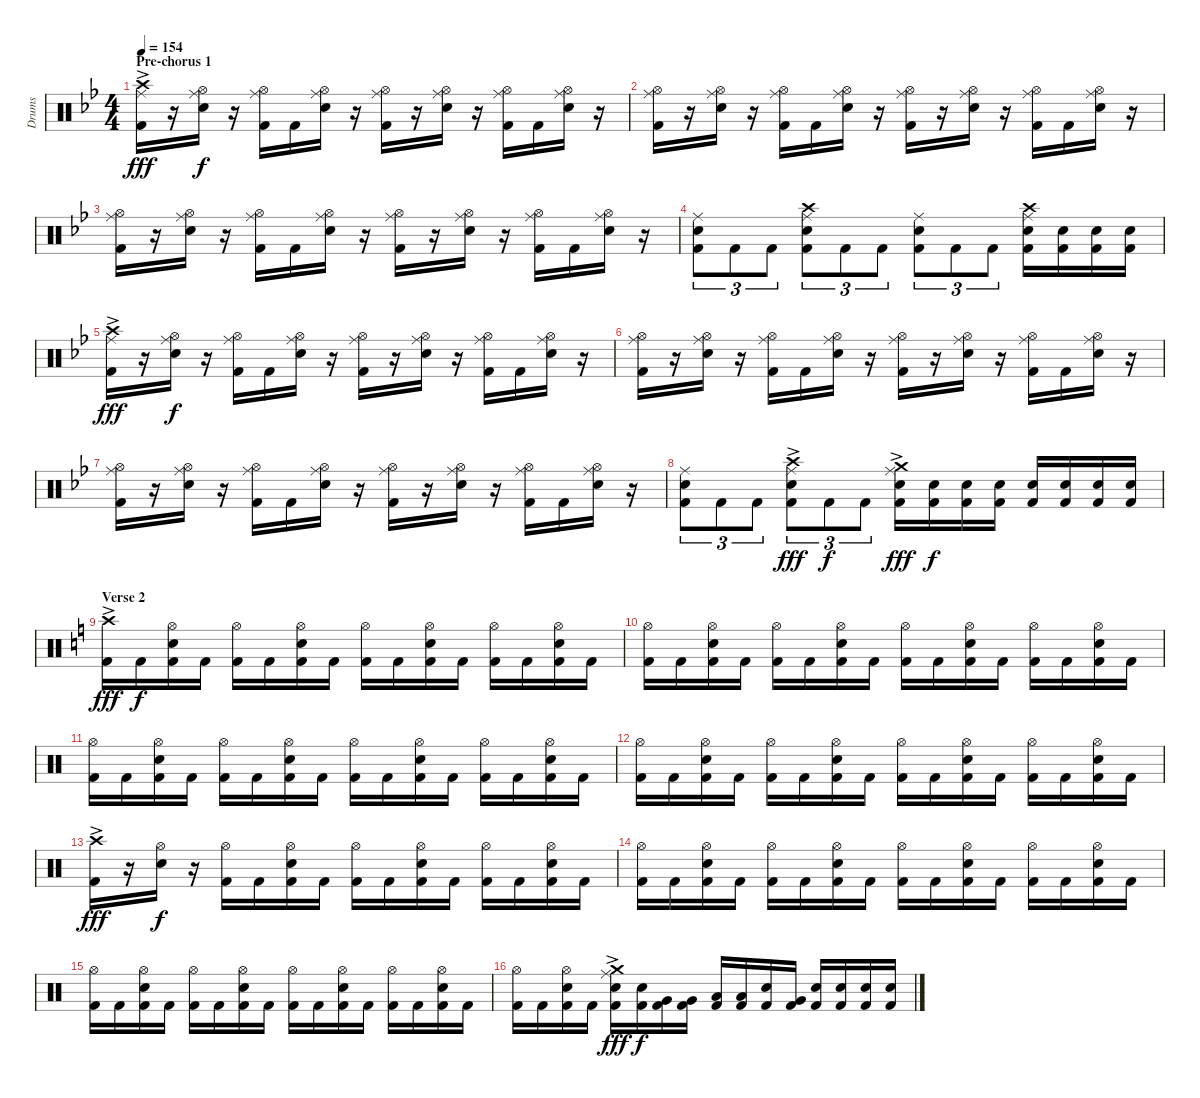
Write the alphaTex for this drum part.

\track ("Drums" "Drums") {instrument percussion}
\staff {score}
\articulation defaults
\ts (4 4)
\section ("" "Pre-chorus 1")
\tempo 154
\clef neutral
\ks gminor
("Crash high (hit)"{ac} "Ride (middle)" "Kick (hit) 2").16{dy fff} r.16 ("Hi-Hat (open)" "Ride (middle)" "Electric Snare (hit)").16{dy f} r.16 ("Hi-Hat (open)" "Ride (middle)" "Kick (hit) 2").16 "Kick (hit) 2".16 ("Hi-Hat (open)" "Ride (middle)" "Electric Snare (hit)").16 r.16 ("Hi-Hat (open)" "Ride (middle)" "Kick (hit) 2").16 r.16 ("Hi-Hat (open)" "Ride (middle)" "Electric Snare (hit)").16 r.16 ("Hi-Hat (open)" "Ride (middle)" "Kick (hit) 2").16 "Kick (hit) 2".16 ("Hi-Hat (open)" "Ride (middle)" "Electric Snare (hit)").16 r.16 |
("Hi-Hat (open)" "Ride (middle)" "Kick (hit) 2").16 r.16 ("Hi-Hat (open)" "Ride (middle)" "Electric Snare (hit)").16 r.16 ("Hi-Hat (open)" "Ride (middle)" "Kick (hit) 2").16 "Kick (hit) 2".16 ("Hi-Hat (open)" "Ride (middle)" "Electric Snare (hit)").16 r.16 ("Hi-Hat (open)" "Ride (middle)" "Kick (hit) 2").16 r.16 ("Hi-Hat (open)" "Ride (middle)" "Electric Snare (hit)").16 r.16 ("Hi-Hat (open)" "Ride (middle)" "Kick (hit) 2").16 "Kick (hit) 2".16 ("Hi-Hat (open)" "Ride (middle)" "Electric Snare (hit)").16 r.16 |
("Hi-Hat (open)" "Ride (middle)" "Kick (hit) 2").16 r.16 ("Hi-Hat (open)" "Ride (middle)" "Electric Snare (hit)").16 r.16 ("Hi-Hat (open)" "Ride (middle)" "Kick (hit) 2").16 "Kick (hit) 2".16 ("Hi-Hat (open)" "Ride (middle)" "Electric Snare (hit)").16 r.16 ("Hi-Hat (open)" "Ride (middle)" "Kick (hit) 2").16 r.16 ("Hi-Hat (open)" "Ride (middle)" "Electric Snare (hit)").16 r.16 ("Hi-Hat (open)" "Ride (middle)" "Kick (hit) 2").16 "Kick (hit) 2".16 ("Hi-Hat (open)" "Ride (middle)" "Electric Snare (hit)").16 r.16 |
("Ride (middle)" "Electric Snare (hit)" "Kick (hit) 2").8{tu (3 2)} "Kick (hit) 2".8{tu (3 2)} "Kick (hit) 2".8{tu (3 2)} ("Crash high (hit)" "Ride (middle)" "Electric Snare (hit)" "Kick (hit) 2").8{tu (3 2)} "Kick (hit) 2".8{tu (3 2)} "Kick (hit) 2".8{tu (3 2)} ("Ride (middle)" "Electric Snare (hit)" "Kick (hit) 2").8{tu (3 2)} "Kick (hit) 2".8{tu (3 2)} "Kick (hit) 2".8{tu (3 2)} ("Crash high (hit)" "Ride (middle)" "Electric Snare (hit)" "Kick (hit) 2").16 ("Electric Snare (hit)" "Kick (hit) 2").16 ("Electric Snare (hit)" "Kick (hit) 2").16 ("Electric Snare (hit)" "Kick (hit) 2").16 |
("Crash high (hit)"{ac} "Ride (middle)" "Kick (hit) 2").16{dy fff} r.16 ("Hi-Hat (open)" "Ride (middle)" "Electric Snare (hit)").16{dy f} r.16 ("Hi-Hat (open)" "Ride (middle)" "Kick (hit) 2").16 "Kick (hit) 2".16 ("Hi-Hat (open)" "Ride (middle)" "Electric Snare (hit)").16 r.16 ("Hi-Hat (open)" "Ride (middle)" "Kick (hit) 2").16 r.16 ("Hi-Hat (open)" "Ride (middle)" "Electric Snare (hit)").16 r.16 ("Hi-Hat (open)" "Ride (middle)" "Kick (hit) 2").16 "Kick (hit) 2".16 ("Hi-Hat (open)" "Ride (middle)" "Electric Snare (hit)").16 r.16 |
("Hi-Hat (open)" "Ride (middle)" "Kick (hit) 2").16 r.16 ("Hi-Hat (open)" "Ride (middle)" "Electric Snare (hit)").16 r.16 ("Hi-Hat (open)" "Ride (middle)" "Kick (hit) 2").16 "Kick (hit) 2".16 ("Hi-Hat (open)" "Ride (middle)" "Electric Snare (hit)").16 r.16 ("Hi-Hat (open)" "Ride (middle)" "Kick (hit) 2").16 r.16 ("Hi-Hat (open)" "Ride (middle)" "Electric Snare (hit)").16 r.16 ("Hi-Hat (open)" "Ride (middle)" "Kick (hit) 2").16 "Kick (hit) 2".16 ("Hi-Hat (open)" "Ride (middle)" "Electric Snare (hit)").16 r.16 |
("Hi-Hat (open)" "Ride (middle)" "Kick (hit) 2").16 r.16 ("Hi-Hat (open)" "Ride (middle)" "Electric Snare (hit)").16 r.16 ("Hi-Hat (open)" "Ride (middle)" "Kick (hit) 2").16 "Kick (hit) 2".16 ("Hi-Hat (open)" "Ride (middle)" "Electric Snare (hit)").16 r.16 ("Hi-Hat (open)" "Ride (middle)" "Kick (hit) 2").16 r.16 ("Hi-Hat (open)" "Ride (middle)" "Electric Snare (hit)").16 r.16 ("Hi-Hat (open)" "Ride (middle)" "Kick (hit) 2").16 "Kick (hit) 2".16 ("Hi-Hat (open)" "Ride (middle)" "Electric Snare (hit)").16 r.16 |
("Ride (middle)" "Electric Snare (hit)" "Kick (hit) 2").8{tu (3 2)} "Kick (hit) 2".8{tu (3 2)} "Kick (hit) 2".8{tu (3 2)} ("Crash high (hit)"{ac} "Ride (middle)" "Electric Snare (hit)" "Kick (hit) 2").8{tu (3 2) dy fff} "Kick (hit) 2".8{tu (3 2) dy f} "Kick (hit) 2".8{tu (3 2)} ("Crash medium (hit)"{ac} "Ride (middle)" "Electric Snare (hit)" "Kick (hit) 2").16{dy fff} ("Electric Snare (hit)" "Kick (hit) 2").16{dy f} ("Electric Snare (hit)" "Kick (hit) 2").16 ("Electric Snare (hit)" "Kick (hit) 2").16 ("Electric Snare (hit)" "Kick (hit) 2").16 ("Electric Snare (hit)" "Kick (hit) 2").16 ("Electric Snare (hit)" "Kick (hit) 2").16 ("Electric Snare (hit)" "Kick (hit) 2").16 |
\section ("" "Verse 2")
\ks c
("Crash high (hit)"{ac} "Kick (hit) 2").16{dy fff} "Kick (hit) 2".16{dy f} ("Hi-Hat (open)" "Electric Snare (hit)" "Kick (hit) 2").16 "Kick (hit) 2".16 ("Hi-Hat (open)" "Kick (hit) 2").16 "Kick (hit) 2".16 ("Hi-Hat (open)" "Electric Snare (hit)" "Kick (hit) 2").16 "Kick (hit) 2".16 ("Hi-Hat (open)" "Kick (hit) 2").16 "Kick (hit) 2".16 ("Hi-Hat (open)" "Electric Snare (hit)" "Kick (hit) 2").16 "Kick (hit) 2".16 ("Hi-Hat (open)" "Kick (hit) 2").16 "Kick (hit) 2".16 ("Hi-Hat (open)" "Electric Snare (hit)" "Kick (hit) 2").16 "Kick (hit) 2".16 |
("Hi-Hat (open)" "Kick (hit) 2").16 "Kick (hit) 2".16 ("Hi-Hat (open)" "Electric Snare (hit)" "Kick (hit) 2").16 "Kick (hit) 2".16 ("Hi-Hat (open)" "Kick (hit) 2").16 "Kick (hit) 2".16 ("Hi-Hat (open)" "Electric Snare (hit)" "Kick (hit) 2").16 "Kick (hit) 2".16 ("Hi-Hat (open)" "Kick (hit) 2").16 "Kick (hit) 2".16 ("Hi-Hat (open)" "Electric Snare (hit)" "Kick (hit) 2").16 "Kick (hit) 2".16 ("Hi-Hat (open)" "Kick (hit) 2").16 "Kick (hit) 2".16 ("Hi-Hat (open)" "Electric Snare (hit)" "Kick (hit) 2").16 "Kick (hit) 2".16 |
("Hi-Hat (open)" "Kick (hit) 2").16 "Kick (hit) 2".16 ("Hi-Hat (open)" "Electric Snare (hit)" "Kick (hit) 2").16 "Kick (hit) 2".16 ("Hi-Hat (open)" "Kick (hit) 2").16 "Kick (hit) 2".16 ("Hi-Hat (open)" "Electric Snare (hit)" "Kick (hit) 2").16 "Kick (hit) 2".16 ("Hi-Hat (open)" "Kick (hit) 2").16 "Kick (hit) 2".16 ("Hi-Hat (open)" "Electric Snare (hit)" "Kick (hit) 2").16 "Kick (hit) 2".16 ("Hi-Hat (open)" "Kick (hit) 2").16 "Kick (hit) 2".16 ("Hi-Hat (open)" "Electric Snare (hit)" "Kick (hit) 2").16 "Kick (hit) 2".16 |
("Hi-Hat (open)" "Kick (hit) 2").16 "Kick (hit) 2".16 ("Hi-Hat (open)" "Electric Snare (hit)" "Kick (hit) 2").16 "Kick (hit) 2".16 ("Hi-Hat (open)" "Kick (hit) 2").16 "Kick (hit) 2".16 ("Hi-Hat (open)" "Electric Snare (hit)" "Kick (hit) 2").16 "Kick (hit) 2".16 ("Hi-Hat (open)" "Kick (hit) 2").16 "Kick (hit) 2".16 ("Hi-Hat (open)" "Electric Snare (hit)" "Kick (hit) 2").16 "Kick (hit) 2".16 ("Hi-Hat (open)" "Kick (hit) 2").16 "Kick (hit) 2".16 ("Hi-Hat (open)" "Electric Snare (hit)" "Kick (hit) 2").16 "Kick (hit) 2".16 |
("Crash high (hit)"{ac} "Kick (hit) 2").16{dy fff} r.16 ("Hi-Hat (open)" "Electric Snare (hit)").16{dy f} r.16 ("Hi-Hat (open)" "Kick (hit) 2").16 "Kick (hit) 2".16 ("Hi-Hat (open)" "Electric Snare (hit)" "Kick (hit) 2").16 "Kick (hit) 2".16 ("Hi-Hat (open)" "Kick (hit) 2").16 "Kick (hit) 2".16 ("Hi-Hat (open)" "Electric Snare (hit)" "Kick (hit) 2").16 "Kick (hit) 2".16 ("Hi-Hat (open)" "Kick (hit) 2").16 "Kick (hit) 2".16 ("Hi-Hat (open)" "Electric Snare (hit)" "Kick (hit) 2").16 "Kick (hit) 2".16 |
("Hi-Hat (open)" "Kick (hit) 2").16 "Kick (hit) 2".16 ("Hi-Hat (open)" "Electric Snare (hit)" "Kick (hit) 2").16 "Kick (hit) 2".16 ("Hi-Hat (open)" "Kick (hit) 2").16 "Kick (hit) 2".16 ("Hi-Hat (open)" "Electric Snare (hit)" "Kick (hit) 2").16 "Kick (hit) 2".16 ("Hi-Hat (open)" "Kick (hit) 2").16 "Kick (hit) 2".16 ("Hi-Hat (open)" "Electric Snare (hit)" "Kick (hit) 2").16 "Kick (hit) 2".16 ("Hi-Hat (open)" "Kick (hit) 2").16 "Kick (hit) 2".16 ("Hi-Hat (open)" "Electric Snare (hit)" "Kick (hit) 2").16 "Kick (hit) 2".16 |
("Hi-Hat (open)" "Kick (hit) 2").16 "Kick (hit) 2".16 ("Hi-Hat (open)" "Electric Snare (hit)" "Kick (hit) 2").16 "Kick (hit) 2".16 ("Hi-Hat (open)" "Kick (hit) 2").16 "Kick (hit) 2".16 ("Hi-Hat (open)" "Electric Snare (hit)" "Kick (hit) 2").16 "Kick (hit) 2".16 ("Hi-Hat (open)" "Kick (hit) 2").16 "Kick (hit) 2".16 ("Hi-Hat (open)" "Electric Snare (hit)" "Kick (hit) 2").16 "Kick (hit) 2".16 ("Hi-Hat (open)" "Kick (hit) 2").16 "Kick (hit) 2".16 ("Hi-Hat (open)" "Electric Snare (hit)" "Kick (hit) 2").16 "Kick (hit) 2".16 |
("Hi-Hat (open)" "Kick (hit) 2").16 "Kick (hit) 2".16 ("Hi-Hat (open)" "Electric Snare (hit)" "Kick (hit) 2").16 "Kick (hit) 2".16 ("Crash medium (hit)"{ac} "Ride (middle)" "Electric Snare (hit)" "Kick (hit) 2").16{dy fff} ("Electric Snare (hit)" "Kick (hit) 2").16{dy f} ("Very Low Tom (hit)" "Kick (hit) 2").16 ("Very Low Tom (hit)" "Kick (hit) 2").16 ("Low Floor Tom (hit)" "Kick (hit) 2").16 ("Low Floor Tom (hit)" "Kick (hit) 2").16 ("Electric Snare (hit)" "Kick (hit) 2").16 ("Very Low Tom (hit)" "Kick (hit) 2").16 ("Electric Snare (hit)" "Kick (hit) 2").16 ("Electric Snare (hit)" "Kick (hit) 2").16 ("Electric Snare (hit)" "Kick (hit) 2").16 ("Electric Snare (hit)" "Kick (hit) 2").16
